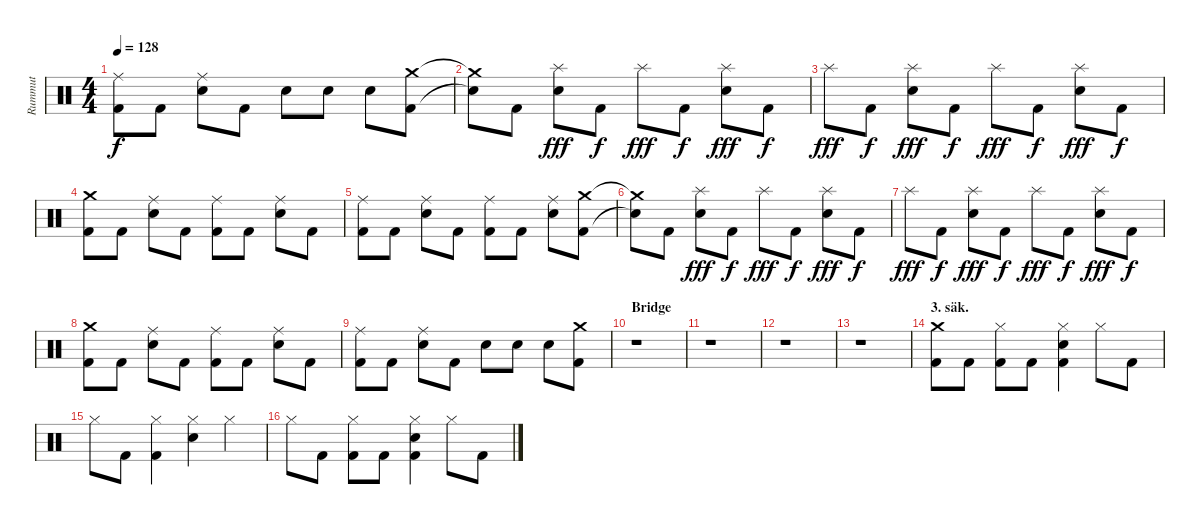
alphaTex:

\track ("Rummut" "Rummut") {instrument percussion}
\staff {score}
\articulation defaults
\ts (4 4)
\tempo 128
\clef neutral
\ks c
("Kick (hit) 2" "Ride (middle)").8{dy f} "Kick (hit) 2".8 ("Ride (middle)" "Snare (hit) 2").8 "Kick (hit) 2".8 "Snare (hit) 2".8 "Snare (hit) 2".8 "Snare (hit) 2".8 ("Kick (hit) 2" "Crash medium (hit)").8 |
("Snare (hit)"{t} "Crash medium (hit)"{t}).8 "Kick (hit) 2".8 ("Splash (hit)" "Snare (hit) 2").8{dy fff} "Kick (hit) 2".8{dy f} "Splash (hit)".8{dy fff} "Kick (hit) 2".8{dy f} ("Splash (hit)" "Snare (hit) 2").8{dy fff} "Kick (hit) 2".8{dy f} |
"Splash (hit)".8{dy fff} "Kick (hit) 2".8{dy f} ("Splash (hit)" "Snare (hit) 2").8{dy fff} "Kick (hit) 2".8{dy f} "Splash (hit)".8{dy fff} "Kick (hit) 2".8{dy f} ("Splash (hit)" "Snare (hit) 2").8{dy fff} "Kick (hit) 2".8{dy f} |
("Kick (hit) 2" "Crash medium (hit)").8 "Kick (hit) 2".8 ("Ride (middle)" "Snare (hit) 2").8 "Kick (hit) 2".8 ("Kick (hit) 2" "Ride (middle)").8 "Kick (hit) 2".8 ("Ride (middle)" "Snare (hit) 2").8 "Kick (hit) 2".8 |
("Kick (hit) 2" "Ride (middle)").8 "Kick (hit) 2".8 ("Ride (middle)" "Snare (hit) 2").8 "Kick (hit) 2".8 ("Kick (hit) 2" "Ride (middle)").8 "Kick (hit) 2".8 ("Ride (middle)" "Snare (hit) 2").8 ("Kick (hit) 2" "Crash medium (hit)").8 |
("Snare (hit)"{t} "Crash medium (hit)"{t}).8 "Kick (hit) 2".8 ("Splash (hit)" "Snare (hit) 2").8{dy fff} "Kick (hit) 2".8{dy f} "Splash (hit)".8{dy fff} "Kick (hit) 2".8{dy f} ("Splash (hit)" "Snare (hit) 2").8{dy fff} "Kick (hit) 2".8{dy f} |
"Splash (hit)".8{dy fff} "Kick (hit) 2".8{dy f} ("Splash (hit)" "Snare (hit) 2").8{dy fff} "Kick (hit) 2".8{dy f} "Splash (hit)".8{dy fff} "Kick (hit) 2".8{dy f} ("Splash (hit)" "Snare (hit) 2").8{dy fff} "Kick (hit) 2".8{dy f} |
("Kick (hit) 2" "Crash medium (hit)").8 "Kick (hit) 2".8 ("Ride (middle)" "Snare (hit) 2").8 "Kick (hit) 2".8 ("Kick (hit) 2" "Ride (middle)").8 "Kick (hit) 2".8 ("Ride (middle)" "Snare (hit) 2").8 "Kick (hit) 2".8 |
("Kick (hit) 2" "Ride (middle)").8 "Kick (hit) 2".8 ("Ride (middle)" "Snare (hit) 2").8 "Kick (hit) 2".8 "Snare (hit) 2".8 "Snare (hit) 2".8 "Snare (hit) 2".8 ("Kick (hit) 2" "Crash medium (hit)").8 |
\section ("" "Bridge")
r.1 |
r.1 |
r.1 |
r.1 |
\section ("" "3. säk.")
("Kick (hit) 2" "Crash medium (hit)").8 "Kick (hit) 2".8 ("Kick (hit) 2" "Hi-Hat (closed)").8 "Kick (hit) 2".8 ("Kick (hit) 2" "Hi-Hat (closed)" "Snare (hit) 2").4 "Hi-Hat (closed)".8 "Kick (hit) 2".8 |
"Hi-Hat (closed)".8 "Kick (hit) 2".8 ("Kick (hit) 2" "Hi-Hat (closed)").4 ("Hi-Hat (closed)" "Snare (hit) 2").4 "Hi-Hat (closed)".4 |
"Hi-Hat (closed)".8 "Kick (hit) 2".8 ("Kick (hit) 2" "Hi-Hat (closed)").8 "Kick (hit) 2".8 ("Kick (hit) 2" "Hi-Hat (closed)" "Snare (hit) 2").4 "Hi-Hat (closed)".8 "Kick (hit) 2".8
